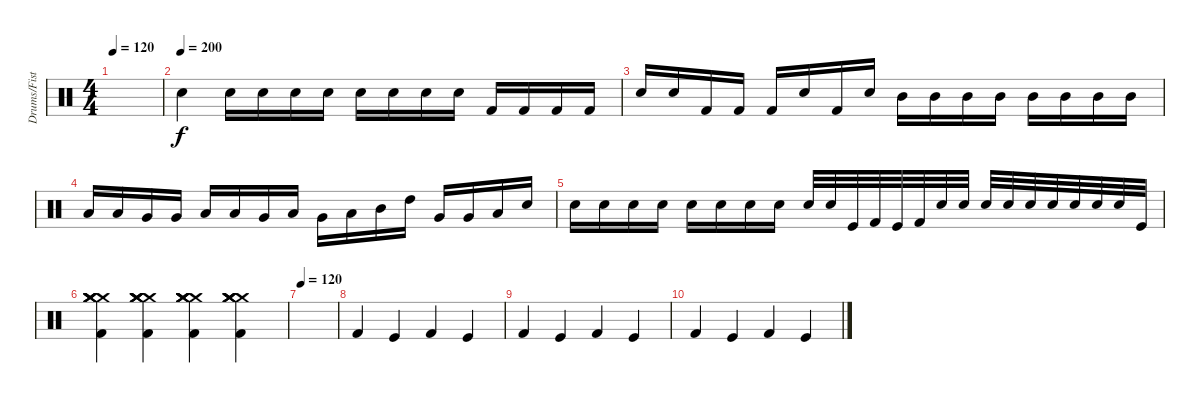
\track ("Drums/Fists" "Drums/Fist") {instrument percussion}
\staff {score}
\articulation defaults
\ts (4 4)
\tempo 120
\clef neutral
\ks c
|
\tempo (200)
"Electric Snare (hit)".4 "Electric Snare (hit)".16 "Electric Snare (hit)".16 "Electric Snare (hit)".16 "Electric Snare (hit)".16 "Electric Snare (hit)".16 "Electric Snare (hit)".16 "Electric Snare (hit)".16 "Electric Snare (hit)".16 "Kick (hit) 2".16 "Kick (hit) 2".16 "Kick (hit) 2".16 "Kick (hit) 2".16 |
"Electric Snare (hit)".16 "Electric Snare (hit)".16 "Kick (hit) 2".16 "Kick (hit) 2".16 "Kick (hit) 2".16 "Electric Snare (hit)".16 "Kick (hit) 2".16 "Electric Snare (hit)".16 "Mid Tom (hit)".16 "Mid Tom (hit)".16 "Mid Tom (hit)".16 "Mid Tom (hit)".16 "Mid Tom (hit)".16 "Mid Tom (hit)".16 "Mid Tom (hit)".16 "Mid Tom (hit)".16 |
"Low Tom (hit)".16 "Low Tom (hit)".16 "Very Low Tom (hit)".16 "Very Low Tom (hit)".16 "Low Floor Tom (hit)".16 "Low Floor Tom (hit)".16 "Very Low Tom (hit)".16 "Low Floor Tom (hit)".16 "Very Low Tom (hit)".16 "Low Tom (hit)".16 "Mid Tom (hit)".16 "High Tom (hit)".16 "Very Low Tom (hit)".16 "Very Low Tom (hit)".16 "Low Tom (hit)".16 "Electric Snare (hit)".16 |
"Snare (hit) 2".16 "Snare (hit) 2".16 "Snare (hit) 2".16 "Snare (hit) 2".16 "Snare (hit) 2".16 "Snare (hit) 2".16 "Snare (hit) 2".16 "Snare (hit) 2".16 "Electric Snare (hit)".32 "Electric Snare (hit)".32 "Kick (hit)".32 "Kick (hit) 2".32 "Kick (hit)".32 "Kick (hit) 2".32 "Snare (hit) 2".32 "Snare (hit) 2".32 "Snare (hit) 2".32 "Snare (hit) 2".32 "Snare (hit) 2".32 "Snare (hit) 2".32 "Snare (hit) 2".32 "Snare (hit) 2".32 "Snare (hit) 2".32 "Kick (hit)".32 |
("Crash medium (hit)" "Crash medium (hit)" "Crash medium (hit)" "Crash medium (hit)" "Crash medium (hit)" "Kick (hit) 2").4 ("Crash medium (hit)" "Crash medium (hit)" "Crash medium (hit)" "Crash medium (hit)" "Crash medium (hit)" "Kick (hit) 2").4 ("Crash medium (hit)" "Crash medium (hit)" "Crash medium (hit)" "Crash medium (hit)" "Crash medium (hit)" "Kick (hit) 2").4 ("Crash medium (hit)" "Crash medium (hit)" "Crash medium (hit)" "Crash medium (hit)" "Crash medium (hit)" "Kick (hit) 2").4 |
\tempo 120
|
"Kick (hit) 2".4 "Kick (hit)".4 "Kick (hit) 2".4 "Kick (hit)".4 |
"Kick (hit) 2".4 "Kick (hit)".4 "Kick (hit) 2".4 "Kick (hit)".4 |
"Kick (hit) 2".4 "Kick (hit)".4 "Kick (hit) 2".4 "Kick (hit)".4
